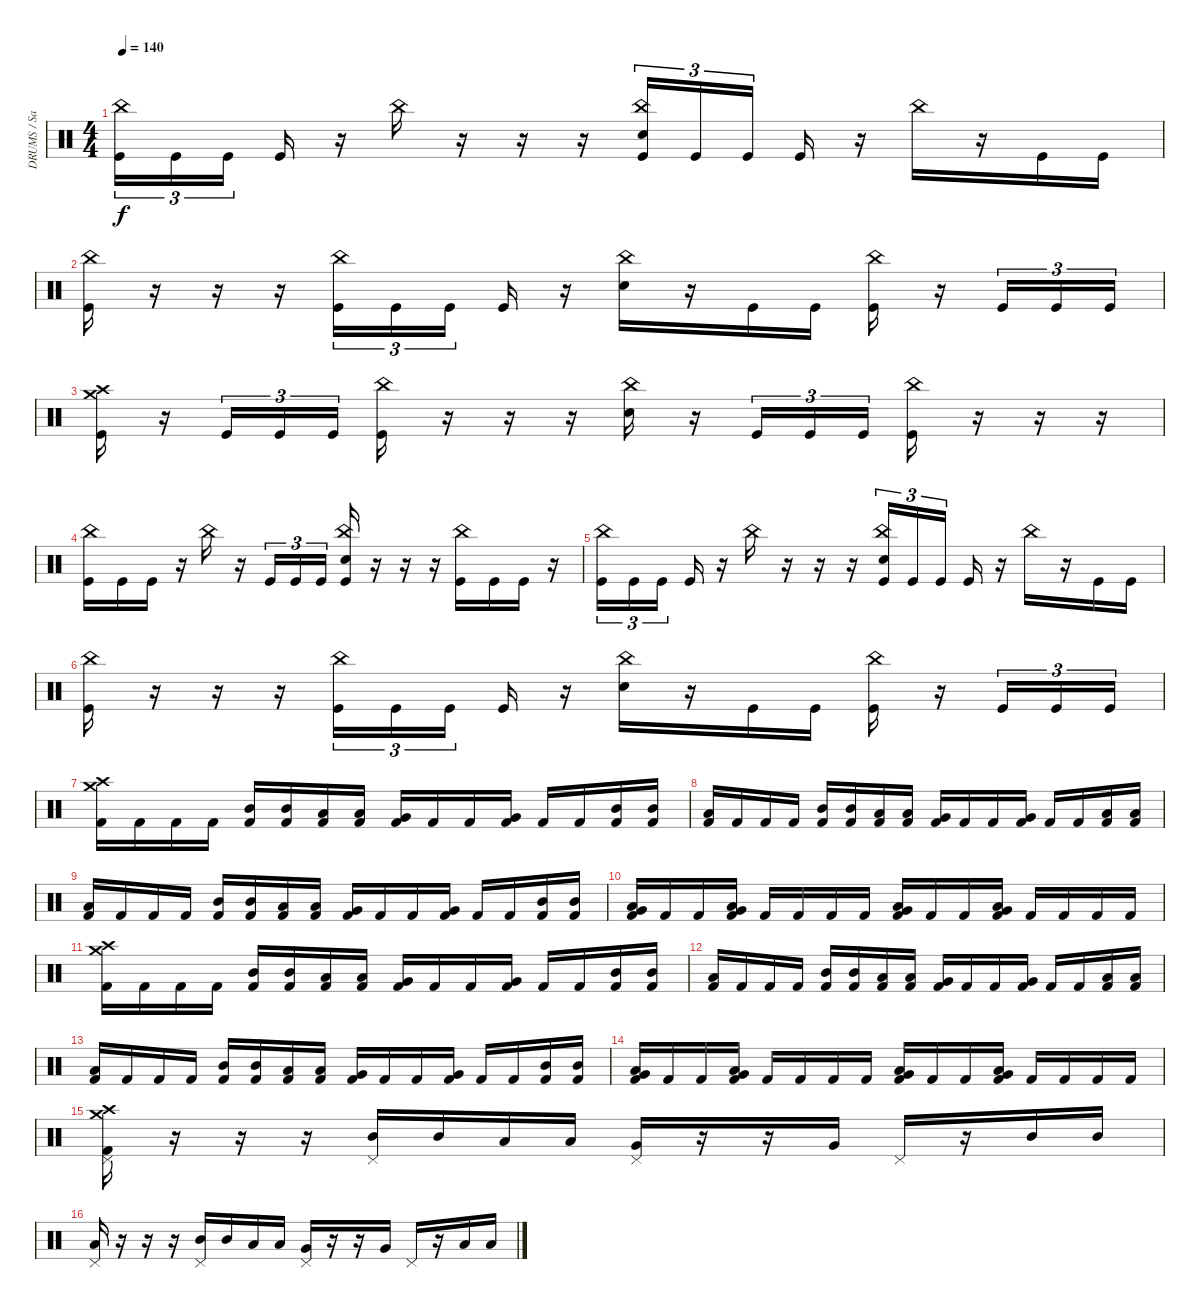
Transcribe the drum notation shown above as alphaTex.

\track ("DRUMS / Sasha" "DRUMS / Sa") {instrument percussion}
\staff {score}
\articulation defaults
\ts (4 4)
\tempo 140
\clef neutral
\ks c
("Kick (hit)" "China (hit)").16{tu (3 2) dy f} "Kick (hit)".16{tu (3 2)} "Kick (hit)".16{tu (3 2) beam splitsecondary} "Kick (hit)".16 r.16 "China (hit)".16 r.16 r.16 r.16 ("Kick (hit)" "China (hit)" "Snare (hit) 2").16{tu (3 2)} "Kick (hit)".16{tu (3 2)} "Kick (hit)".16{tu (3 2) beam splitsecondary} "Kick (hit)".16 r.16 "China (hit)".16 r.16 "Kick (hit)".16 "Kick (hit)".16 |
("Kick (hit)" "China (hit)").16 r.16 r.16 r.16 ("Kick (hit)" "China (hit)").16{tu (3 2)} "Kick (hit)".16{tu (3 2)} "Kick (hit)".16{tu (3 2) beam splitsecondary} "Kick (hit)".16 r.16 ("China (hit)" "Snare (hit) 2").16 r.16 "Kick (hit)".16 "Kick (hit)".16 ("Kick (hit)" "China (hit)").16 r.16 "Kick (hit)".16{tu (3 2)} "Kick (hit)".16{tu (3 2)} "Kick (hit)".16{tu (3 2)} |
("Kick (hit)" "Crash medium (hit)" "Crash high (hit)").16 r.16 "Kick (hit)".16{tu (3 2)} "Kick (hit)".16{tu (3 2)} "Kick (hit)".16{tu (3 2)} ("China (hit)" "Kick (hit)").16 r.16 r.16 r.16 ("China (hit)" "Snare (hit) 2").16 r.16 "Kick (hit)".16{tu (3 2)} "Kick (hit)".16{tu (3 2)} "Kick (hit)".16{tu (3 2)} ("China (hit)" "Kick (hit)").16 r.16 r.16 r.16 |
("China (hit)" "Kick (hit)").16 "Kick (hit)".16 "Kick (hit)".16 r.16 "China (hit)".16 r.16 "Kick (hit)".16{tu (3 2)} "Kick (hit)".16{tu (3 2)} "Kick (hit)".16{tu (3 2)} ("China (hit)" "Kick (hit)" "Snare (hit) 2").16 r.16 r.16 r.16 ("China (hit)" "Kick (hit)").16 "Kick (hit)".16 "Kick (hit)".16 r.16 |
("Kick (hit)" "China (hit)").16{tu (3 2)} "Kick (hit)".16{tu (3 2)} "Kick (hit)".16{tu (3 2) beam splitsecondary} "Kick (hit)".16 r.16 "China (hit)".16 r.16 r.16 r.16 ("Kick (hit)" "China (hit)" "Snare (hit) 2").16{tu (3 2)} "Kick (hit)".16{tu (3 2)} "Kick (hit)".16{tu (3 2) beam splitsecondary} "Kick (hit)".16 r.16 "China (hit)".16 r.16 "Kick (hit)".16 "Kick (hit)".16 |
("Kick (hit)" "China (hit)").16 r.16 r.16 r.16 ("Kick (hit)" "China (hit)").16{tu (3 2)} "Kick (hit)".16{tu (3 2)} "Kick (hit)".16{tu (3 2) beam splitsecondary} "Kick (hit)".16 r.16 ("China (hit)" "Snare (hit) 2").16 r.16 "Kick (hit)".16 "Kick (hit)".16 ("Kick (hit)" "China (hit)").16 r.16 "Kick (hit)".16{tu (3 2)} "Kick (hit)".16{tu (3 2)} "Kick (hit)".16{tu (3 2)} |
("Crash high (hit)" "Crash medium (hit)" "Kick (hit) 2").16 "Kick (hit) 2".16 "Kick (hit) 2".16 "Kick (hit) 2".16 ("Mid Tom (hit)" "Kick (hit) 2").16 ("Mid Tom (hit)" "Kick (hit) 2").16 ("Low Tom (hit)" "Kick (hit) 2").16 ("Low Tom (hit)" "Kick (hit) 2").16 ("Very Low Tom (hit)" "Kick (hit) 2").16 "Kick (hit) 2".16 "Kick (hit) 2".16 ("Very Low Tom (hit)" "Kick (hit) 2").16 "Kick (hit) 2".16 "Kick (hit) 2".16 ("Mid Tom (hit)" "Kick (hit) 2").16 ("Mid Tom (hit)" "Kick (hit) 2").16 |
("Low Tom (hit)" "Kick (hit) 2").16 "Kick (hit) 2".16 "Kick (hit) 2".16 "Kick (hit) 2".16 ("Mid Tom (hit)" "Kick (hit) 2").16 ("Mid Tom (hit)" "Kick (hit) 2").16 ("Low Tom (hit)" "Kick (hit) 2").16 ("Low Tom (hit)" "Kick (hit) 2").16 ("Very Low Tom (hit)" "Kick (hit) 2").16 "Kick (hit) 2".16 "Kick (hit) 2".16 ("Very Low Tom (hit)" "Kick (hit) 2").16 "Kick (hit) 2".16 "Kick (hit) 2".16 ("Low Tom (hit)" "Kick (hit) 2").16 ("Low Tom (hit)" "Kick (hit) 2").16 |
("Low Tom (hit)" "Kick (hit) 2").16 "Kick (hit) 2".16 "Kick (hit) 2".16 "Kick (hit) 2".16 ("Mid Tom (hit)" "Kick (hit) 2").16 ("Mid Tom (hit)" "Kick (hit) 2").16 ("Low Tom (hit)" "Kick (hit) 2").16 ("Low Tom (hit)" "Kick (hit) 2").16 ("Very Low Tom (hit)" "Kick (hit) 2").16 "Kick (hit) 2".16 "Kick (hit) 2".16 ("Very Low Tom (hit)" "Kick (hit) 2").16 "Kick (hit) 2".16 "Kick (hit) 2".16 ("Mid Tom (hit)" "Kick (hit) 2").16 ("Mid Tom (hit)" "Kick (hit) 2").16 |
("Very Low Tom (hit)" "Low Tom (hit)" "Kick (hit) 2").16 "Kick (hit) 2".16 "Kick (hit) 2".16 ("Very Low Tom (hit)" "Low Tom (hit)" "Kick (hit) 2").16 "Kick (hit) 2".16 "Kick (hit) 2".16 "Kick (hit) 2".16 "Kick (hit) 2".16 ("Very Low Tom (hit)" "Low Tom (hit)" "Kick (hit) 2").16 "Kick (hit) 2".16 "Kick (hit) 2".16 ("Very Low Tom (hit)" "Low Tom (hit)" "Kick (hit) 2").16 "Kick (hit) 2".16 "Kick (hit) 2".16 "Kick (hit) 2".16 "Kick (hit) 2".16 |
("Crash high (hit)" "Crash medium (hit)" "Kick (hit) 2").16 "Kick (hit) 2".16 "Kick (hit) 2".16 "Kick (hit) 2".16 ("Mid Tom (hit)" "Kick (hit) 2").16 ("Mid Tom (hit)" "Kick (hit) 2").16 ("Low Tom (hit)" "Kick (hit) 2").16 ("Low Tom (hit)" "Kick (hit) 2").16 ("Very Low Tom (hit)" "Kick (hit) 2").16 "Kick (hit) 2".16 "Kick (hit) 2".16 ("Very Low Tom (hit)" "Kick (hit) 2").16 "Kick (hit) 2".16 "Kick (hit) 2".16 ("Mid Tom (hit)" "Kick (hit) 2").16 ("Mid Tom (hit)" "Kick (hit) 2").16 |
("Low Tom (hit)" "Kick (hit) 2").16 "Kick (hit) 2".16 "Kick (hit) 2".16 "Kick (hit) 2".16 ("Mid Tom (hit)" "Kick (hit) 2").16 ("Mid Tom (hit)" "Kick (hit) 2").16 ("Low Tom (hit)" "Kick (hit) 2").16 ("Low Tom (hit)" "Kick (hit) 2").16 ("Very Low Tom (hit)" "Kick (hit) 2").16 "Kick (hit) 2".16 "Kick (hit) 2".16 ("Very Low Tom (hit)" "Kick (hit) 2").16 "Kick (hit) 2".16 "Kick (hit) 2".16 ("Low Tom (hit)" "Kick (hit) 2").16 ("Low Tom (hit)" "Kick (hit) 2").16 |
("Low Tom (hit)" "Kick (hit) 2").16 "Kick (hit) 2".16 "Kick (hit) 2".16 "Kick (hit) 2".16 ("Mid Tom (hit)" "Kick (hit) 2").16 ("Mid Tom (hit)" "Kick (hit) 2").16 ("Low Tom (hit)" "Kick (hit) 2").16 ("Low Tom (hit)" "Kick (hit) 2").16 ("Very Low Tom (hit)" "Kick (hit) 2").16 "Kick (hit) 2".16 "Kick (hit) 2".16 ("Very Low Tom (hit)" "Kick (hit) 2").16 "Kick (hit) 2".16 "Kick (hit) 2".16 ("Mid Tom (hit)" "Kick (hit) 2").16 ("Mid Tom (hit)" "Kick (hit) 2").16 |
("Very Low Tom (hit)" "Low Tom (hit)" "Kick (hit) 2").16 "Kick (hit) 2".16 "Kick (hit) 2".16 ("Very Low Tom (hit)" "Low Tom (hit)" "Kick (hit) 2").16 "Kick (hit) 2".16 "Kick (hit) 2".16 "Kick (hit) 2".16 "Kick (hit) 2".16 ("Very Low Tom (hit)" "Low Tom (hit)" "Kick (hit) 2").16 "Kick (hit) 2".16 "Kick (hit) 2".16 ("Very Low Tom (hit)" "Low Tom (hit)" "Kick (hit) 2").16 "Kick (hit) 2".16 "Kick (hit) 2".16 "Kick (hit) 2".16 "Kick (hit) 2".16 |
("Pedal Hi-Hat (hit)" "Crash medium (hit)" "Crash high (hit)" "Kick (hit) 2").16 r.16 r.16 r.16 ("Pedal Hi-Hat (hit)" "Mid Tom (hit)").16 "Mid Tom (hit)".16 "Low Tom (hit)".16 "Low Tom (hit)".16 ("Pedal Hi-Hat (hit)" "Very Low Tom (hit)").16 r.16 r.16 "Very Low Tom (hit)".16 "Pedal Hi-Hat (hit)".16 r.16 "Mid Tom (hit)".16 "Mid Tom (hit)".16 |
("Pedal Hi-Hat (hit)" "Low Tom (hit)").16 r.16 r.16 r.16 ("Pedal Hi-Hat (hit)" "Mid Tom (hit)").16 "Mid Tom (hit)".16 "Low Tom (hit)".16 "Low Tom (hit)".16 ("Pedal Hi-Hat (hit)" "Very Low Tom (hit)").16 r.16 r.16 "Very Low Tom (hit)".16 "Pedal Hi-Hat (hit)".16 r.16 "Low Tom (hit)".16 "Low Tom (hit)".16
